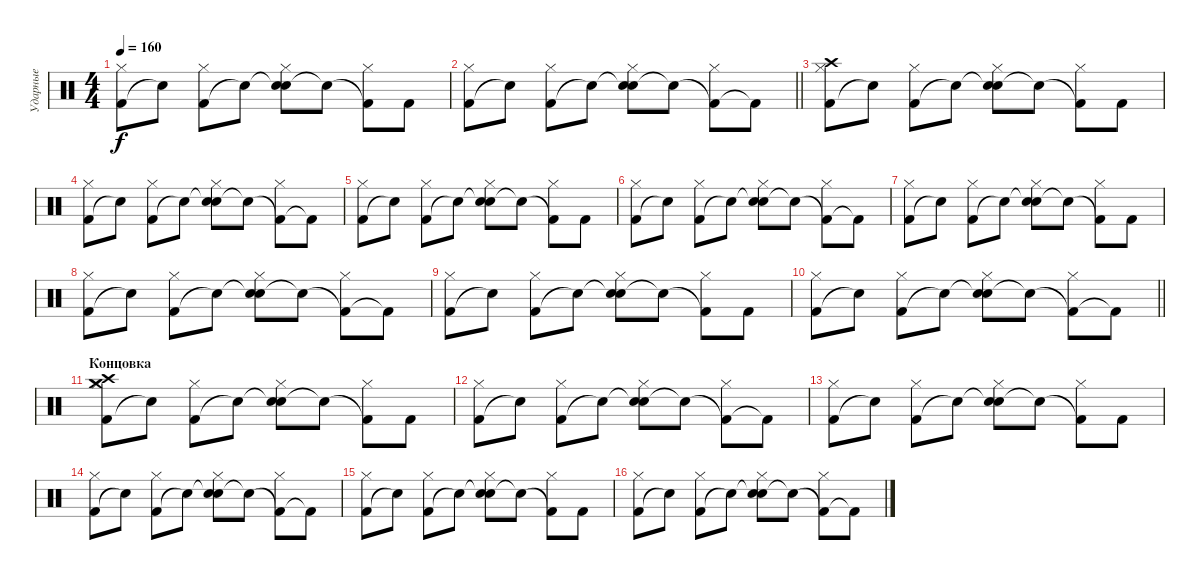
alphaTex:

\track ("Ударные" "Ударные") {instrument percussion}
\staff {score}
\articulation defaults
\ts (4 4)
\tempo 160
\clef neutral
\ks c
("Kick (hit) 2" "Hi-Hat (closed)").8{dy f} "Snare (hit)"{t}.8 ("Kick (hit) 2" "Hi-Hat (closed)").8 "Snare (hit)"{t}.8 ("Snare (hit)"{t} "Hi-Hat (closed)" "Snare (hit) 2").8 "Snare (hit)"{t}.8 ("Kick (hit) 2"{t} "Hi-Hat (closed)").8 "Kick (hit) 2".8 |
\barLineRight lightlight
("Kick (hit) 2" "Hi-Hat (closed)").8 "Snare (hit)"{t}.8 ("Kick (hit) 2" "Hi-Hat (closed)").8 "Snare (hit)"{t}.8 ("Snare (hit)"{t} "Hi-Hat (closed)" "Snare (hit) 2").8 "Snare (hit)"{t}.8 ("Kick (hit) 2"{t} "Hi-Hat (closed)").8 "Kick (hit) 2"{t}.8 |
("Kick (hit) 2" "Hi-Hat (closed)" "Crash high (hit)").8 "Snare (hit)"{t}.8 ("Kick (hit) 2" "Hi-Hat (closed)").8 "Snare (hit)"{t}.8 ("Snare (hit)"{t} "Hi-Hat (closed)" "Snare (hit) 2").8 "Snare (hit)"{t}.8 ("Kick (hit) 2"{t} "Hi-Hat (closed)").8 "Kick (hit) 2".8 |
("Kick (hit) 2" "Hi-Hat (closed)").8 "Snare (hit)"{t}.8 ("Kick (hit) 2" "Hi-Hat (closed)").8 "Snare (hit)"{t}.8 ("Snare (hit)"{t} "Hi-Hat (closed)" "Snare (hit) 2").8 "Snare (hit)"{t}.8 ("Kick (hit) 2"{t} "Hi-Hat (closed)").8 "Kick (hit) 2"{t}.8 |
("Kick (hit) 2" "Hi-Hat (closed)").8 "Snare (hit)"{t}.8 ("Kick (hit) 2" "Hi-Hat (closed)").8 "Snare (hit)"{t}.8 ("Snare (hit)"{t} "Hi-Hat (closed)" "Snare (hit) 2").8 "Snare (hit)"{t}.8 ("Kick (hit) 2"{t} "Hi-Hat (closed)").8 "Kick (hit) 2".8 |
("Kick (hit) 2" "Hi-Hat (closed)").8 "Snare (hit)"{t}.8 ("Kick (hit) 2" "Hi-Hat (closed)").8 "Snare (hit)"{t}.8 ("Snare (hit)"{t} "Hi-Hat (closed)" "Snare (hit) 2").8 "Snare (hit)"{t}.8 ("Kick (hit) 2"{t} "Hi-Hat (closed)").8 "Kick (hit) 2"{t}.8 |
("Kick (hit) 2" "Hi-Hat (closed)").8 "Snare (hit)"{t}.8 ("Kick (hit) 2" "Hi-Hat (closed)").8 "Snare (hit)"{t}.8 ("Snare (hit)"{t} "Hi-Hat (closed)" "Snare (hit) 2").8 "Snare (hit)"{t}.8 ("Kick (hit) 2"{t} "Hi-Hat (closed)").8 "Kick (hit) 2".8 |
("Kick (hit) 2" "Hi-Hat (closed)").8 "Snare (hit)"{t}.8 ("Kick (hit) 2" "Hi-Hat (closed)").8 "Snare (hit)"{t}.8 ("Snare (hit)"{t} "Hi-Hat (closed)" "Snare (hit) 2").8 "Snare (hit)"{t}.8 ("Kick (hit) 2"{t} "Hi-Hat (closed)").8 "Kick (hit) 2"{t}.8 |
("Kick (hit) 2" "Hi-Hat (closed)").8 "Snare (hit)"{t}.8 ("Kick (hit) 2" "Hi-Hat (closed)").8 "Snare (hit)"{t}.8 ("Snare (hit)"{t} "Hi-Hat (closed)" "Snare (hit) 2").8 "Snare (hit)"{t}.8 ("Kick (hit) 2"{t} "Hi-Hat (closed)").8 "Kick (hit) 2".8 |
\barLineRight lightlight
("Kick (hit) 2" "Hi-Hat (closed)").8 "Snare (hit)"{t}.8 ("Kick (hit) 2" "Hi-Hat (closed)").8 "Snare (hit)"{t}.8 ("Snare (hit)"{t} "Hi-Hat (closed)" "Snare (hit) 2").8 "Snare (hit)"{t}.8 ("Kick (hit) 2"{t} "Hi-Hat (closed)").8 "Kick (hit) 2"{t}.8 |
\section ("" "Концовка")
("Kick (hit) 2" "Hi-Hat (closed)" "Crash medium (hit)" "Crash high (hit)").8 "Snare (hit)"{t}.8 ("Kick (hit) 2" "Hi-Hat (closed)").8 "Snare (hit)"{t}.8 ("Snare (hit)"{t} "Hi-Hat (closed)" "Snare (hit) 2").8 "Snare (hit)"{t}.8 ("Kick (hit) 2"{t} "Hi-Hat (closed)").8 "Kick (hit) 2".8 |
("Kick (hit) 2" "Hi-Hat (closed)").8 "Snare (hit)"{t}.8 ("Kick (hit) 2" "Hi-Hat (closed)").8 "Snare (hit)"{t}.8 ("Snare (hit)"{t} "Hi-Hat (closed)" "Snare (hit) 2").8 "Snare (hit)"{t}.8 ("Kick (hit) 2"{t} "Hi-Hat (closed)").8 "Kick (hit) 2"{t}.8 |
("Kick (hit) 2" "Hi-Hat (closed)").8 "Snare (hit)"{t}.8 ("Kick (hit) 2" "Hi-Hat (closed)").8 "Snare (hit)"{t}.8 ("Snare (hit)"{t} "Hi-Hat (closed)" "Snare (hit) 2").8 "Snare (hit)"{t}.8 ("Kick (hit) 2"{t} "Hi-Hat (closed)").8 "Kick (hit) 2".8 |
("Kick (hit) 2" "Hi-Hat (closed)").8 "Snare (hit)"{t}.8 ("Kick (hit) 2" "Hi-Hat (closed)").8 "Snare (hit)"{t}.8 ("Snare (hit)"{t} "Hi-Hat (closed)" "Snare (hit) 2").8 "Snare (hit)"{t}.8 ("Kick (hit) 2"{t} "Hi-Hat (closed)").8 "Kick (hit) 2"{t}.8 |
("Kick (hit) 2" "Hi-Hat (closed)").8 "Snare (hit)"{t}.8 ("Kick (hit) 2" "Hi-Hat (closed)").8 "Snare (hit)"{t}.8 ("Snare (hit)"{t} "Hi-Hat (closed)" "Snare (hit) 2").8 "Snare (hit)"{t}.8 ("Kick (hit) 2"{t} "Hi-Hat (closed)").8 "Kick (hit) 2".8 |
("Kick (hit) 2" "Hi-Hat (closed)").8 "Snare (hit)"{t}.8 ("Kick (hit) 2" "Hi-Hat (closed)").8 "Snare (hit)"{t}.8 ("Snare (hit)"{t} "Hi-Hat (closed)" "Snare (hit) 2").8 "Snare (hit)"{t}.8 ("Kick (hit) 2"{t} "Hi-Hat (closed)").8 "Kick (hit) 2"{t}.8
